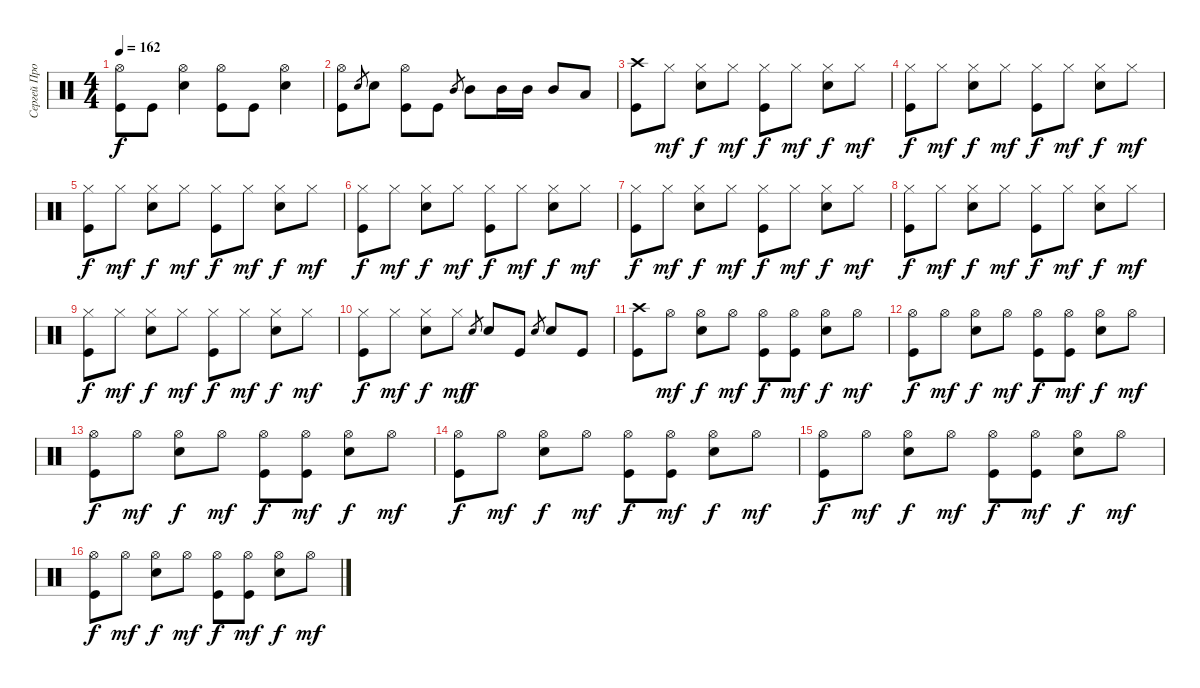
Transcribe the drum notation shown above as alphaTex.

\track ("Сергей Прокофьев" "Сергей Про") {instrument percussion}
\staff {score}
\articulation defaults
\ts (4 4)
\tempo 162
\clef neutral
\ks c
("Hi-Hat (open)" "Kick (hit)").8{dy f} "Kick (hit)".8 ("Hi-Hat (open)" "Electric Snare (hit)").4 ("Hi-Hat (open)" "Kick (hit)").8 "Kick (hit)".8 ("Hi-Hat (open)" "Electric Snare (hit)").4 |
("Hi-Hat (open)" "Kick (hit)").8 "Electric Snare (hit)".8{gr} "Electric Snare (hit)".8 ("Hi-Hat (open)" "Kick (hit)").8 "Kick (hit)".8 "Mid Tom (hit)".8{gr} "Mid Tom (hit)".8 "Mid Tom (hit)".16 "Mid Tom (hit)".16 "Mid Tom (hit)".8 "Low Tom (hit)".8 |
("Crash high (hit)" "Kick (hit)").8 "Hi-Hat (closed)".8{dy mf} ("Hi-Hat (closed)" "Electric Snare (hit)").8{dy f} "Hi-Hat (closed)".8{dy mf} ("Hi-Hat (closed)" "Kick (hit)").8{dy f} "Hi-Hat (closed)".8{dy mf} ("Hi-Hat (closed)" "Electric Snare (hit)").8{dy f} "Hi-Hat (closed)".8{dy mf} |
("Hi-Hat (closed)" "Kick (hit)").8{dy f} "Hi-Hat (closed)".8{dy mf} ("Hi-Hat (closed)" "Electric Snare (hit)").8{dy f} "Hi-Hat (closed)".8{dy mf} ("Hi-Hat (closed)" "Kick (hit)").8{dy f} "Hi-Hat (closed)".8{dy mf} ("Hi-Hat (closed)" "Electric Snare (hit)").8{dy f} "Hi-Hat (closed)".8{dy mf} |
("Hi-Hat (closed)" "Kick (hit)").8{dy f} "Hi-Hat (closed)".8{dy mf} ("Hi-Hat (closed)" "Electric Snare (hit)").8{dy f} "Hi-Hat (closed)".8{dy mf} ("Hi-Hat (closed)" "Kick (hit)").8{dy f} "Hi-Hat (closed)".8{dy mf} ("Hi-Hat (closed)" "Electric Snare (hit)").8{dy f} "Hi-Hat (closed)".8{dy mf} |
("Hi-Hat (closed)" "Kick (hit)").8{dy f} "Hi-Hat (closed)".8{dy mf} ("Hi-Hat (closed)" "Electric Snare (hit)").8{dy f} "Hi-Hat (closed)".8{dy mf} ("Hi-Hat (closed)" "Kick (hit)").8{dy f} "Hi-Hat (closed)".8{dy mf} ("Hi-Hat (closed)" "Electric Snare (hit)").8{dy f} "Hi-Hat (closed)".8{dy mf} |
("Hi-Hat (closed)" "Kick (hit)").8{dy f} "Hi-Hat (closed)".8{dy mf} ("Hi-Hat (closed)" "Electric Snare (hit)").8{dy f} "Hi-Hat (closed)".8{dy mf} ("Hi-Hat (closed)" "Kick (hit)").8{dy f} "Hi-Hat (closed)".8{dy mf} ("Hi-Hat (closed)" "Electric Snare (hit)").8{dy f} "Hi-Hat (closed)".8{dy mf} |
("Hi-Hat (closed)" "Kick (hit)").8{dy f} "Hi-Hat (closed)".8{dy mf} ("Hi-Hat (closed)" "Electric Snare (hit)").8{dy f} "Hi-Hat (closed)".8{dy mf} ("Hi-Hat (closed)" "Kick (hit)").8{dy f} "Hi-Hat (closed)".8{dy mf} ("Hi-Hat (closed)" "Electric Snare (hit)").8{dy f} "Hi-Hat (closed)".8{dy mf} |
("Hi-Hat (closed)" "Kick (hit)").8{dy f} "Hi-Hat (closed)".8{dy mf} ("Hi-Hat (closed)" "Electric Snare (hit)").8{dy f} "Hi-Hat (closed)".8{dy mf} ("Hi-Hat (closed)" "Kick (hit)").8{dy f} "Hi-Hat (closed)".8{dy mf} ("Hi-Hat (closed)" "Electric Snare (hit)").8{dy f} "Hi-Hat (closed)".8{dy mf} |
("Hi-Hat (closed)" "Kick (hit)").8{dy f} "Hi-Hat (closed)".8{dy mf} ("Hi-Hat (closed)" "Electric Snare (hit)").8{dy f} "Hi-Hat (closed)".8{dy mf} "Electric Snare (hit)".8{gr dy f} "Electric Snare (hit)".8 "Kick (hit)".8 "Electric Snare (hit)".8{gr} "Electric Snare (hit)".8 "Kick (hit)".8 |
("Crash high (hit)" "Kick (hit)").8 "Hi-Hat (open)".8{dy mf} ("Hi-Hat (open)" "Electric Snare (hit)").8{dy f} "Hi-Hat (open)".8{dy mf} ("Hi-Hat (open)" "Kick (hit)").8{dy f} ("Hi-Hat (open)" "Kick (hit)").8{dy mf} ("Hi-Hat (open)" "Electric Snare (hit)").8{dy f} "Hi-Hat (open)".8{dy mf} |
("Hi-Hat (open)" "Kick (hit)").8{dy f} "Hi-Hat (open)".8{dy mf} ("Hi-Hat (open)" "Electric Snare (hit)").8{dy f} "Hi-Hat (open)".8{dy mf} ("Hi-Hat (open)" "Kick (hit)").8{dy f} ("Hi-Hat (open)" "Kick (hit)").8{dy mf} ("Hi-Hat (open)" "Electric Snare (hit)").8{dy f} "Hi-Hat (open)".8{dy mf} |
("Hi-Hat (open)" "Kick (hit)").8{dy f} "Hi-Hat (open)".8{dy mf} ("Hi-Hat (open)" "Electric Snare (hit)").8{dy f} "Hi-Hat (open)".8{dy mf} ("Hi-Hat (open)" "Kick (hit)").8{dy f} ("Hi-Hat (open)" "Kick (hit)").8{dy mf} ("Hi-Hat (open)" "Electric Snare (hit)").8{dy f} "Hi-Hat (open)".8{dy mf} |
("Hi-Hat (open)" "Kick (hit)").8{dy f} "Hi-Hat (open)".8{dy mf} ("Hi-Hat (open)" "Electric Snare (hit)").8{dy f} "Hi-Hat (open)".8{dy mf} ("Hi-Hat (open)" "Kick (hit)").8{dy f} ("Hi-Hat (open)" "Kick (hit)").8{dy mf} ("Hi-Hat (open)" "Electric Snare (hit)").8{dy f} "Hi-Hat (open)".8{dy mf} |
("Hi-Hat (open)" "Kick (hit)").8{dy f} "Hi-Hat (open)".8{dy mf} ("Hi-Hat (open)" "Electric Snare (hit)").8{dy f} "Hi-Hat (open)".8{dy mf} ("Hi-Hat (open)" "Kick (hit)").8{dy f} ("Hi-Hat (open)" "Kick (hit)").8{dy mf} ("Hi-Hat (open)" "Electric Snare (hit)").8{dy f} "Hi-Hat (open)".8{dy mf} |
("Hi-Hat (open)" "Kick (hit)").8{dy f} "Hi-Hat (open)".8{dy mf} ("Hi-Hat (open)" "Electric Snare (hit)").8{dy f} "Hi-Hat (open)".8{dy mf} ("Hi-Hat (open)" "Kick (hit)").8{dy f} ("Hi-Hat (open)" "Kick (hit)").8{dy mf} ("Hi-Hat (open)" "Electric Snare (hit)").8{dy f} "Hi-Hat (open)".8{dy mf}
